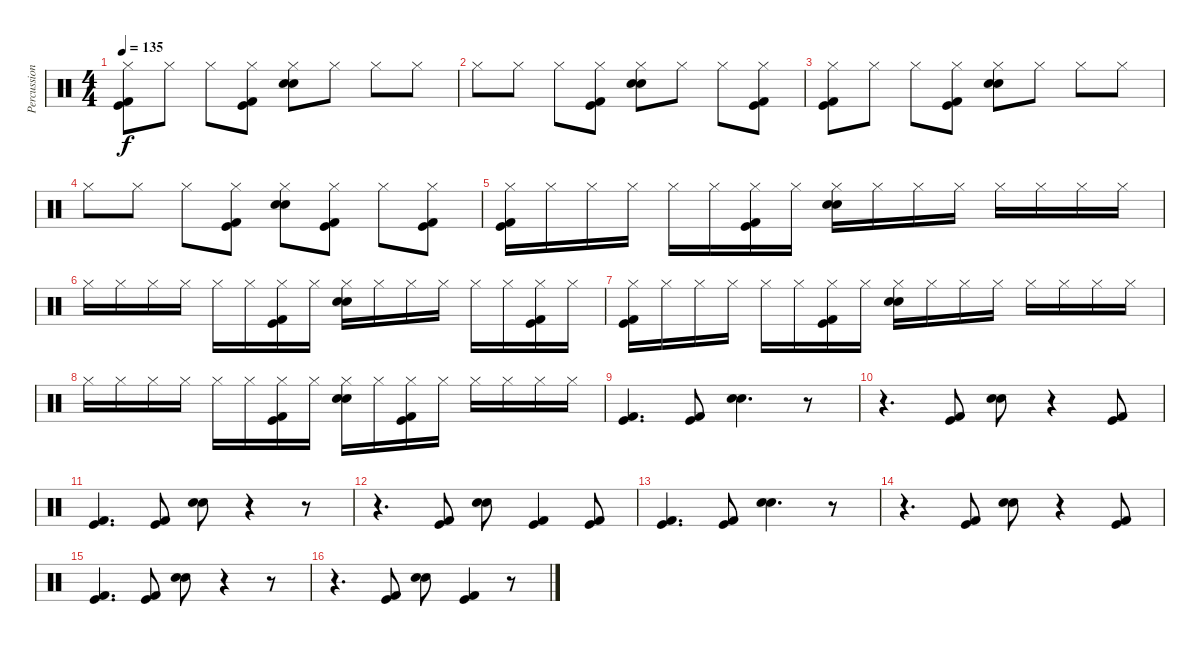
\track ("Percussion" "Percussion") {instrument percussion}
\staff {score}
\articulation defaults
\ts (4 4)
\tempo 135
\clef neutral
\ks c
("Hi-Hat (closed)" "Kick (hit) 2" "Kick (hit)").8{dy f} "Hi-Hat (closed)".8 "Hi-Hat (closed)".8 ("Hi-Hat (closed)" "Kick (hit) 2" "Kick (hit)").8 ("Hi-Hat (closed)" "Hand Clap (hit)" "Electric Snare (hit)").8 "Hi-Hat (closed)".8 "Hi-Hat (closed)".8 "Hi-Hat (closed)".8 |
"Hi-Hat (closed)".8 "Hi-Hat (closed)".8 "Hi-Hat (closed)".8 ("Hi-Hat (closed)" "Kick (hit) 2" "Kick (hit)").8 ("Hi-Hat (closed)" "Hand Clap (hit)" "Electric Snare (hit)").8 "Hi-Hat (closed)".8 "Hi-Hat (closed)".8 ("Hi-Hat (closed)" "Kick (hit) 2" "Kick (hit)").8 |
("Hi-Hat (closed)" "Kick (hit) 2" "Kick (hit)").8 "Hi-Hat (closed)".8 "Hi-Hat (closed)".8 ("Hi-Hat (closed)" "Kick (hit) 2" "Kick (hit)").8 ("Hi-Hat (closed)" "Hand Clap (hit)" "Electric Snare (hit)").8 "Hi-Hat (closed)".8 "Hi-Hat (closed)".8 "Hi-Hat (closed)".8 |
"Hi-Hat (closed)".8 "Hi-Hat (closed)".8 "Hi-Hat (closed)".8 ("Hi-Hat (closed)" "Kick (hit) 2" "Kick (hit)").8 ("Hi-Hat (closed)" "Hand Clap (hit)" "Electric Snare (hit)").8 ("Hi-Hat (closed)" "Kick (hit) 2" "Kick (hit)").8 "Hi-Hat (closed)".8 ("Hi-Hat (closed)" "Kick (hit) 2" "Kick (hit)").8 |
("Hi-Hat (closed)" "Kick (hit) 2" "Kick (hit)").16 "Hi-Hat (closed)".16 "Hi-Hat (closed)".16 "Hi-Hat (closed)".16 "Hi-Hat (closed)".16 "Hi-Hat (closed)".16 ("Hi-Hat (closed)" "Kick (hit) 2" "Kick (hit)").16 "Hi-Hat (closed)".16 ("Hi-Hat (closed)" "Hand Clap (hit)" "Electric Snare (hit)").16 "Hi-Hat (closed)".16 "Hi-Hat (closed)".16 "Hi-Hat (closed)".16 "Hi-Hat (closed)".16 "Hi-Hat (closed)".16 "Hi-Hat (closed)".16 "Hi-Hat (closed)".16 |
"Hi-Hat (closed)".16 "Hi-Hat (closed)".16 "Hi-Hat (closed)".16 "Hi-Hat (closed)".16 "Hi-Hat (closed)".16 "Hi-Hat (closed)".16 ("Hi-Hat (closed)" "Kick (hit) 2" "Kick (hit)").16 "Hi-Hat (closed)".16 ("Hi-Hat (closed)" "Hand Clap (hit)" "Electric Snare (hit)").16 "Hi-Hat (closed)".16 "Hi-Hat (closed)".16 "Hi-Hat (closed)".16 "Hi-Hat (closed)".16 "Hi-Hat (closed)".16 ("Hi-Hat (closed)" "Kick (hit) 2" "Kick (hit)").16 "Hi-Hat (closed)".16 |
("Hi-Hat (closed)" "Kick (hit) 2" "Kick (hit)").16 "Hi-Hat (closed)".16 "Hi-Hat (closed)".16 "Hi-Hat (closed)".16 "Hi-Hat (closed)".16 "Hi-Hat (closed)".16 ("Hi-Hat (closed)" "Kick (hit) 2" "Kick (hit)").16 "Hi-Hat (closed)".16 ("Hi-Hat (closed)" "Hand Clap (hit)" "Electric Snare (hit)").16 "Hi-Hat (closed)".16 "Hi-Hat (closed)".16 "Hi-Hat (closed)".16 "Hi-Hat (closed)".16 "Hi-Hat (closed)".16 "Hi-Hat (closed)".16 "Hi-Hat (closed)".16 |
"Hi-Hat (closed)".16 "Hi-Hat (closed)".16 "Hi-Hat (closed)".16 "Hi-Hat (closed)".16 "Hi-Hat (closed)".16 "Hi-Hat (closed)".16 ("Hi-Hat (closed)" "Kick (hit) 2" "Kick (hit)").16 "Hi-Hat (closed)".16 ("Hi-Hat (closed)" "Hand Clap (hit)" "Electric Snare (hit)").16 "Hi-Hat (closed)".16 ("Hi-Hat (closed)" "Kick (hit) 2" "Kick (hit)").16 "Hi-Hat (closed)".16 "Hi-Hat (closed)".16 "Hi-Hat (closed)".16 "Hi-Hat (closed)".16 "Hi-Hat (closed)".16 |
("Kick (hit) 2" "Kick (hit)").4{d} ("Kick (hit) 2" "Kick (hit)").8 ("Electric Snare (hit)" "Hand Clap (hit)").4{d} r.8 |
r.4{d} ("Kick (hit) 2" "Kick (hit)").8 ("Electric Snare (hit)" "Hand Clap (hit)").8 r.4 ("Kick (hit) 2" "Kick (hit)").8 |
("Kick (hit) 2" "Kick (hit)").4{d} ("Kick (hit) 2" "Kick (hit)").8 ("Electric Snare (hit)" "Hand Clap (hit)").8 r.4 r.8 |
r.4{d} ("Kick (hit) 2" "Kick (hit)").8 ("Electric Snare (hit)" "Hand Clap (hit)").8 ("Kick (hit) 2" "Kick (hit)").4 ("Kick (hit) 2" "Kick (hit)").8 |
("Kick (hit) 2" "Kick (hit)").4{d} ("Kick (hit) 2" "Kick (hit)").8 ("Electric Snare (hit)" "Hand Clap (hit)").4{d} r.8 |
r.4{d} ("Kick (hit) 2" "Kick (hit)").8 ("Electric Snare (hit)" "Hand Clap (hit)").8 r.4 ("Kick (hit) 2" "Kick (hit)").8 |
("Kick (hit) 2" "Kick (hit)").4{d} ("Kick (hit) 2" "Kick (hit)").8 ("Electric Snare (hit)" "Hand Clap (hit)").8 r.4 r.8 |
r.4{d} ("Kick (hit) 2" "Kick (hit)").8 ("Electric Snare (hit)" "Hand Clap (hit)").8 ("Kick (hit) 2" "Kick (hit)").4 r.8
